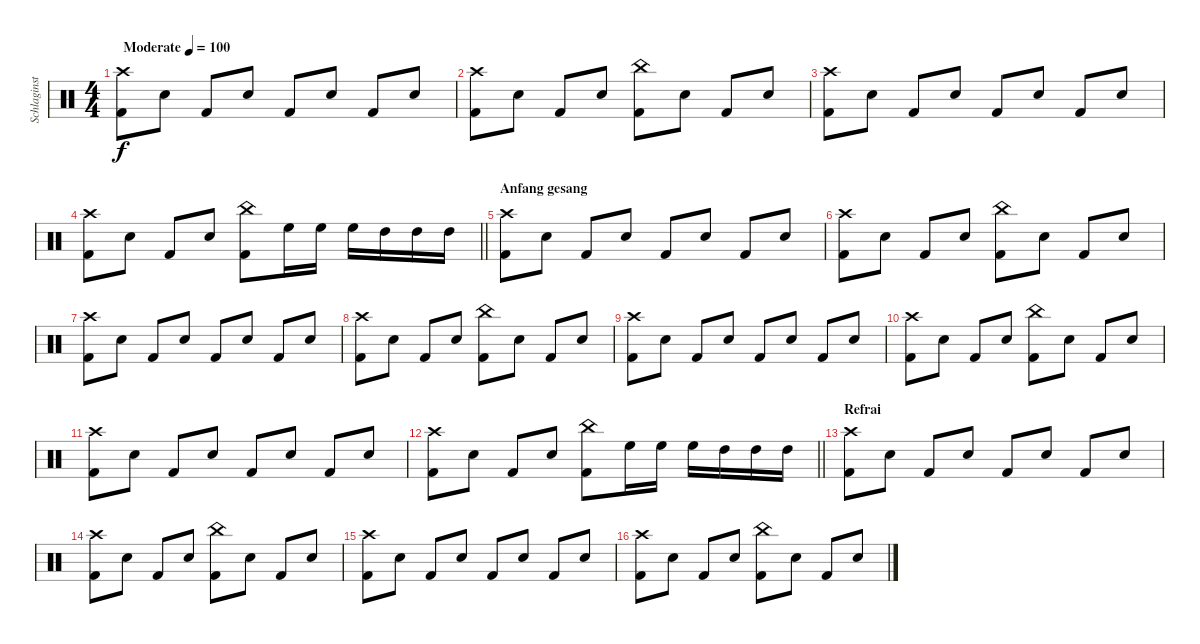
\track ("Schlaginstrumente - Auswahl" "Schlaginst") {instrument percussion}
\staff {score}
\articulation defaults
\ts (4 4)
\tempo (100 "Moderate")
\clef neutral
\ks c
("Crash high (hit)" "Kick (hit) 2").8{dy f} "Snare (hit) 2".8 "Kick (hit) 2".8 "Snare (hit) 2".8 "Kick (hit) 2".8 "Snare (hit) 2".8 "Kick (hit) 2".8 "Snare (hit) 2".8 |
("Crash high (hit)" "Kick (hit) 2").8 "Snare (hit) 2".8 "Kick (hit) 2".8 "Snare (hit) 2".8 ("China (hit)" "Kick (hit) 2").8 "Snare (hit) 2".8 "Kick (hit) 2".8 "Snare (hit) 2".8 |
("Crash high (hit)" "Kick (hit) 2").8 "Snare (hit) 2".8 "Kick (hit) 2".8 "Snare (hit) 2".8 "Kick (hit) 2".8 "Snare (hit) 2".8 "Kick (hit) 2".8 "Snare (hit) 2".8 |
\barLineRight lightlight
("Crash high (hit)" "Kick (hit) 2").8 "Snare (hit) 2".8 "Kick (hit) 2".8 "Snare (hit) 2".8 ("China (hit)" "Kick (hit) 2").8 "High Floor Tom (hit)".16 "High Floor Tom (hit)".16 "High Floor Tom (hit)".16 "High Tom (hit)".16 "High Tom (hit)".16 "High Tom (hit)".16 |
\section ("" "Anfang gesang")
("Crash high (hit)" "Kick (hit) 2").8 "Snare (hit) 2".8 "Kick (hit) 2".8 "Snare (hit) 2".8 "Kick (hit) 2".8 "Snare (hit) 2".8 "Kick (hit) 2".8 "Snare (hit) 2".8 |
("Crash high (hit)" "Kick (hit) 2").8 "Snare (hit) 2".8 "Kick (hit) 2".8 "Snare (hit) 2".8 ("China (hit)" "Kick (hit) 2").8 "Snare (hit) 2".8 "Kick (hit) 2".8 "Snare (hit) 2".8 |
("Crash high (hit)" "Kick (hit) 2").8 "Snare (hit) 2".8 "Kick (hit) 2".8 "Snare (hit) 2".8 "Kick (hit) 2".8 "Snare (hit) 2".8 "Kick (hit) 2".8 "Snare (hit) 2".8 |
("Crash high (hit)" "Kick (hit) 2").8 "Snare (hit) 2".8 "Kick (hit) 2".8 "Snare (hit) 2".8 ("China (hit)" "Kick (hit) 2").8 "Snare (hit) 2".8 "Kick (hit) 2".8 "Snare (hit) 2".8 |
("Crash high (hit)" "Kick (hit) 2").8 "Snare (hit) 2".8 "Kick (hit) 2".8 "Snare (hit) 2".8 "Kick (hit) 2".8 "Snare (hit) 2".8 "Kick (hit) 2".8 "Snare (hit) 2".8 |
("Crash high (hit)" "Kick (hit) 2").8 "Snare (hit) 2".8 "Kick (hit) 2".8 "Snare (hit) 2".8 ("China (hit)" "Kick (hit) 2").8 "Snare (hit) 2".8 "Kick (hit) 2".8 "Snare (hit) 2".8 |
("Crash high (hit)" "Kick (hit) 2").8 "Snare (hit) 2".8 "Kick (hit) 2".8 "Snare (hit) 2".8 "Kick (hit) 2".8 "Snare (hit) 2".8 "Kick (hit) 2".8 "Snare (hit) 2".8 |
\barLineRight lightlight
("Crash high (hit)" "Kick (hit) 2").8 "Snare (hit) 2".8 "Kick (hit) 2".8 "Snare (hit) 2".8 ("China (hit)" "Kick (hit) 2").8 "High Floor Tom (hit)".16 "High Floor Tom (hit)".16 "High Floor Tom (hit)".16 "High Tom (hit)".16 "High Tom (hit)".16 "High Tom (hit)".16 |
\section ("" "Refrai")
("Crash high (hit)" "Kick (hit) 2").8 "Snare (hit) 2".8 "Kick (hit) 2".8 "Snare (hit) 2".8 "Kick (hit) 2".8 "Snare (hit) 2".8 "Kick (hit) 2".8 "Snare (hit) 2".8 |
("Crash high (hit)" "Kick (hit) 2").8 "Snare (hit) 2".8 "Kick (hit) 2".8 "Snare (hit) 2".8 ("China (hit)" "Kick (hit) 2").8 "Snare (hit) 2".8 "Kick (hit) 2".8 "Snare (hit) 2".8 |
("Crash high (hit)" "Kick (hit) 2").8 "Snare (hit) 2".8 "Kick (hit) 2".8 "Snare (hit) 2".8 "Kick (hit) 2".8 "Snare (hit) 2".8 "Kick (hit) 2".8 "Snare (hit) 2".8 |
("Crash high (hit)" "Kick (hit) 2").8 "Snare (hit) 2".8 "Kick (hit) 2".8 "Snare (hit) 2".8 ("China (hit)" "Kick (hit) 2").8 "Snare (hit) 2".8 "Kick (hit) 2".8 "Snare (hit) 2".8
